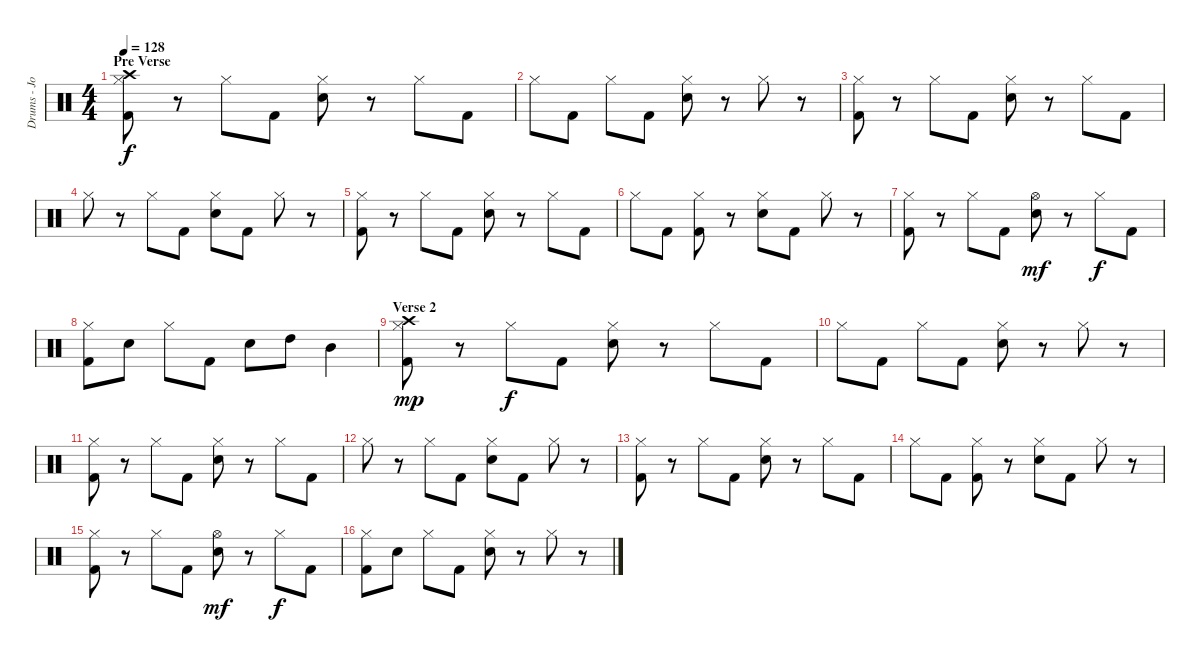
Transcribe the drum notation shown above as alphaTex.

\track ("Drums - John Humphrey" "Drums - Jo") {instrument percussion}
\staff {score}
\articulation defaults
\ts (4 4)
\section ("" "Pre Verse")
\tempo 128
\clef neutral
\ks c
("Crash high (hit)" "Hi-Hat (closed)" "Kick (hit) 2").8{dy f} r.8 "Hi-Hat (closed)".8 "Kick (hit) 2".8 ("Hi-Hat (closed)" "Electric Snare (hit)").8 r.8 "Hi-Hat (closed)".8 "Kick (hit) 2".8 |
"Hi-Hat (closed)".8 "Kick (hit) 2".8 "Hi-Hat (closed)".8 "Kick (hit) 2".8 ("Hi-Hat (closed)" "Electric Snare (hit)").8 r.8 "Hi-Hat (closed)".8 r.8 |
("Hi-Hat (closed)" "Kick (hit) 2").8 r.8 "Hi-Hat (closed)".8 "Kick (hit) 2".8 ("Hi-Hat (closed)" "Electric Snare (hit)").8 r.8 "Hi-Hat (closed)".8 "Kick (hit) 2".8 |
"Hi-Hat (closed)".8 r.8 "Hi-Hat (closed)".8 "Kick (hit) 2".8 ("Hi-Hat (closed)" "Electric Snare (hit)").8 "Kick (hit) 2".8 "Hi-Hat (closed)".8 r.8 |
("Hi-Hat (closed)" "Kick (hit) 2").8 r.8 "Hi-Hat (closed)".8 "Kick (hit) 2".8 ("Hi-Hat (closed)" "Electric Snare (hit)").8 r.8 "Hi-Hat (closed)".8 "Kick (hit) 2".8 |
"Hi-Hat (closed)".8 "Kick (hit) 2".8 ("Hi-Hat (closed)" "Kick (hit) 2").8 r.8 ("Hi-Hat (closed)" "Electric Snare (hit)").8 "Kick (hit) 2".8 "Hi-Hat (closed)".8 r.8 |
("Hi-Hat (closed)" "Kick (hit) 2").8 r.8 "Hi-Hat (closed)".8 "Kick (hit) 2".8 ("Hi-Hat (open)" "Electric Snare (hit)").8{dy mf} r.8 "Hi-Hat (closed)".8{dy f} "Kick (hit) 2".8 |
("Hi-Hat (closed)" "Kick (hit) 2").8 "Electric Snare (hit)".8 "Hi-Hat (closed)".8 "Kick (hit) 2".8 "Electric Snare (hit)".8 "High Tom (hit)".8 "Mid Tom (hit)".4 |
\section ("" "Verse 2")
("Crash high (hit)" "Hi-Hat (closed)" "Kick (hit) 2").8{dy mp} r.8 "Hi-Hat (closed)".8{dy f} "Kick (hit) 2".8 ("Hi-Hat (closed)" "Electric Snare (hit)").8 r.8 "Hi-Hat (closed)".8 "Kick (hit) 2".8 |
"Hi-Hat (closed)".8 "Kick (hit) 2".8 "Hi-Hat (closed)".8 "Kick (hit) 2".8 ("Hi-Hat (closed)" "Electric Snare (hit)").8 r.8 "Hi-Hat (closed)".8 r.8 |
("Hi-Hat (closed)" "Kick (hit) 2").8 r.8 "Hi-Hat (closed)".8 "Kick (hit) 2".8 ("Hi-Hat (closed)" "Electric Snare (hit)").8 r.8 "Hi-Hat (closed)".8 "Kick (hit) 2".8 |
"Hi-Hat (closed)".8 r.8 "Hi-Hat (closed)".8 "Kick (hit) 2".8 ("Hi-Hat (closed)" "Electric Snare (hit)").8 "Kick (hit) 2".8 "Hi-Hat (closed)".8 r.8 |
("Hi-Hat (closed)" "Kick (hit) 2").8 r.8 "Hi-Hat (closed)".8 "Kick (hit) 2".8 ("Hi-Hat (closed)" "Electric Snare (hit)").8 r.8 "Hi-Hat (closed)".8 "Kick (hit) 2".8 |
"Hi-Hat (closed)".8 "Kick (hit) 2".8 ("Hi-Hat (closed)" "Kick (hit) 2").8 r.8 ("Hi-Hat (closed)" "Electric Snare (hit)").8 "Kick (hit) 2".8 "Hi-Hat (closed)".8 r.8 |
("Hi-Hat (closed)" "Kick (hit) 2").8 r.8 "Hi-Hat (closed)".8 "Kick (hit) 2".8 ("Hi-Hat (open)" "Electric Snare (hit)").8{dy mf} r.8 "Hi-Hat (closed)".8{dy f} "Kick (hit) 2".8 |
("Hi-Hat (closed)" "Kick (hit) 2").8 "Electric Snare (hit)".8 "Hi-Hat (closed)".8 "Kick (hit) 2".8 ("Hi-Hat (closed)" "Electric Snare (hit)").8 r.8 "Hi-Hat (closed)".8 r.8
